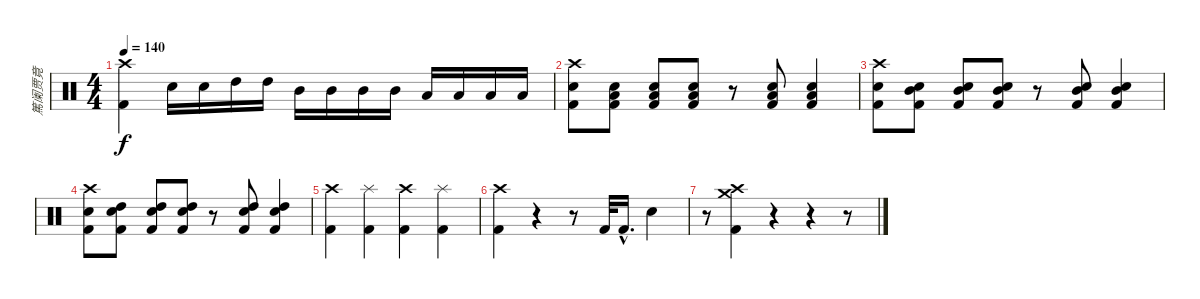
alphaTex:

\track ("篤阑贾竟" "篤阑贾竟") {instrument percussion}
\staff {score}
\articulation defaults
\ts (4 4)
\tempo 140
\clef neutral
\ks c
("Crash high (hit)" "Kick (hit) 2").4{dy f} "Snare (hit) 2".16 "Snare (hit) 2".16 "High Tom (hit)".16 "High Tom (hit)".16 "Mid Tom (hit)".16 "Mid Tom (hit)".16 "Mid Tom (hit)".16 "Mid Tom (hit)".16 "Low Floor Tom (hit)".16 "Low Floor Tom (hit)".16 "Low Floor Tom (hit)".16 "Low Floor Tom (hit)".16 |
("Crash high (hit)" "Snare (hit) 2" "Kick (hit) 2").8 ("Low Floor Tom (hit)" "Snare (hit) 2" "Kick (hit) 2").8 ("Low Floor Tom (hit)" "Snare (hit) 2" "Kick (hit) 2").8 ("Low Floor Tom (hit)" "Snare (hit) 2" "Kick (hit) 2").8 r.8 ("Low Floor Tom (hit)" "Snare (hit) 2" "Kick (hit) 2").8 ("Low Floor Tom (hit)" "Snare (hit) 2" "Kick (hit) 2").4 |
("Crash high (hit)" "Snare (hit) 2" "Kick (hit) 2").8 ("Mid Tom (hit)" "Snare (hit) 2" "Kick (hit) 2").8 ("Mid Tom (hit)" "Snare (hit) 2" "Kick (hit) 2").8 ("Mid Tom (hit)" "Snare (hit) 2" "Kick (hit) 2").8 r.8 ("Mid Tom (hit)" "Snare (hit) 2" "Kick (hit) 2").8 ("Mid Tom (hit)" "Snare (hit) 2" "Kick (hit) 2").4 |
("Crash high (hit)" "Snare (hit) 2" "Kick (hit) 2").8 ("High Tom (hit)" "Snare (hit) 2" "Kick (hit) 2").8 ("High Tom (hit)" "Snare (hit) 2" "Kick (hit) 2").8 ("High Tom (hit)" "Snare (hit) 2" "Kick (hit) 2").8 r.8 ("High Tom (hit)" "Snare (hit) 2" "Kick (hit) 2").8 ("High Tom (hit)" "Snare (hit) 2" "Kick (hit) 2").4 |
("Crash high (hit)" "Kick (hit) 2").4 ("Splash (hit)" "Kick (hit) 2").4 ("Crash high (hit)" "Kick (hit) 2").4 ("Splash (hit)" "Kick (hit) 2").4 |
("Crash high (hit)" "Kick (hit) 2").4 r.4 r.8 "Kick (hit) 2".32 "Kick (hit) 2"{hac}.16{d} "Snare (hit) 2".4 |
r.8 ("Crash high (hit)" "Crash medium (hit)" "Kick (hit) 2").4 r.4 r.4 r.8
